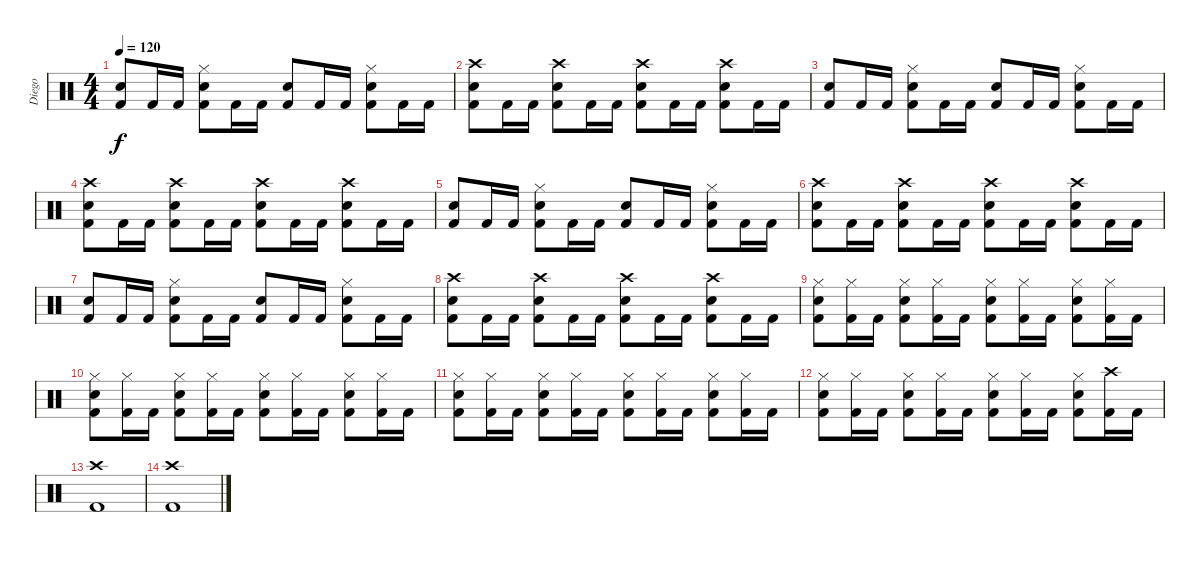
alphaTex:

\track ("Diego" "Diego") {instrument percussion}
\staff {score}
\articulation defaults
\ts (4 4)
\tempo 120
\clef neutral
\ks c
("Snare (hit) 2" "Kick (hit) 2").8{dy f} "Kick (hit) 2".16 "Kick (hit) 2".16 ("Hi-Hat (closed)" "Snare (hit) 2" "Kick (hit) 2").8 "Kick (hit) 2".16 "Kick (hit) 2".16 ("Snare (hit) 2" "Kick (hit) 2").8 "Kick (hit) 2".16 "Kick (hit) 2".16 ("Hi-Hat (closed)" "Snare (hit) 2" "Kick (hit) 2").8 "Kick (hit) 2".16 "Kick (hit) 2".16 |
("Crash high (hit)" "Snare (hit) 2" "Kick (hit) 2").8 "Kick (hit) 2".16 "Kick (hit) 2".16 ("Crash high (hit)" "Snare (hit) 2" "Kick (hit) 2").8 "Kick (hit) 2".16 "Kick (hit) 2".16 ("Crash high (hit)" "Snare (hit) 2" "Kick (hit) 2").8 "Kick (hit) 2".16 "Kick (hit) 2".16 ("Crash high (hit)" "Snare (hit) 2" "Kick (hit) 2").8 "Kick (hit) 2".16 "Kick (hit) 2".16 |
("Snare (hit) 2" "Kick (hit) 2").8 "Kick (hit) 2".16 "Kick (hit) 2".16 ("Hi-Hat (closed)" "Snare (hit) 2" "Kick (hit) 2").8 "Kick (hit) 2".16 "Kick (hit) 2".16 ("Snare (hit) 2" "Kick (hit) 2").8 "Kick (hit) 2".16 "Kick (hit) 2".16 ("Hi-Hat (closed)" "Snare (hit) 2" "Kick (hit) 2").8 "Kick (hit) 2".16 "Kick (hit) 2".16 |
("Crash high (hit)" "Snare (hit) 2" "Kick (hit) 2").8 "Kick (hit) 2".16 "Kick (hit) 2".16 ("Crash high (hit)" "Snare (hit) 2" "Kick (hit) 2").8 "Kick (hit) 2".16 "Kick (hit) 2".16 ("Crash high (hit)" "Snare (hit) 2" "Kick (hit) 2").8 "Kick (hit) 2".16 "Kick (hit) 2".16 ("Crash high (hit)" "Snare (hit) 2" "Kick (hit) 2").8 "Kick (hit) 2".16 "Kick (hit) 2".16 |
("Snare (hit) 2" "Kick (hit) 2").8 "Kick (hit) 2".16 "Kick (hit) 2".16 ("Hi-Hat (closed)" "Snare (hit) 2" "Kick (hit) 2").8 "Kick (hit) 2".16 "Kick (hit) 2".16 ("Snare (hit) 2" "Kick (hit) 2").8 "Kick (hit) 2".16 "Kick (hit) 2".16 ("Hi-Hat (closed)" "Snare (hit) 2" "Kick (hit) 2").8 "Kick (hit) 2".16 "Kick (hit) 2".16 |
("Crash high (hit)" "Snare (hit) 2" "Kick (hit) 2").8 "Kick (hit) 2".16 "Kick (hit) 2".16 ("Crash high (hit)" "Snare (hit) 2" "Kick (hit) 2").8 "Kick (hit) 2".16 "Kick (hit) 2".16 ("Crash high (hit)" "Snare (hit) 2" "Kick (hit) 2").8 "Kick (hit) 2".16 "Kick (hit) 2".16 ("Crash high (hit)" "Snare (hit) 2" "Kick (hit) 2").8 "Kick (hit) 2".16 "Kick (hit) 2".16 |
("Snare (hit) 2" "Kick (hit) 2").8 "Kick (hit) 2".16 "Kick (hit) 2".16 ("Hi-Hat (closed)" "Snare (hit) 2" "Kick (hit) 2").8 "Kick (hit) 2".16 "Kick (hit) 2".16 ("Snare (hit) 2" "Kick (hit) 2").8 "Kick (hit) 2".16 "Kick (hit) 2".16 ("Hi-Hat (closed)" "Snare (hit) 2" "Kick (hit) 2").8 "Kick (hit) 2".16 "Kick (hit) 2".16 |
("Crash high (hit)" "Snare (hit) 2" "Kick (hit) 2").8 "Kick (hit) 2".16 "Kick (hit) 2".16 ("Crash high (hit)" "Snare (hit) 2" "Kick (hit) 2").8 "Kick (hit) 2".16 "Kick (hit) 2".16 ("Crash high (hit)" "Snare (hit) 2" "Kick (hit) 2").8 "Kick (hit) 2".16 "Kick (hit) 2".16 ("Crash high (hit)" "Snare (hit) 2" "Kick (hit) 2").8 "Kick (hit) 2".16 "Kick (hit) 2".16 |
("Hi-Hat (closed)" "Snare (hit) 2" "Kick (hit) 2").8 ("Hi-Hat (closed)" "Kick (hit) 2").16 "Kick (hit) 2".16 ("Hi-Hat (closed)" "Snare (hit) 2" "Kick (hit) 2").8 ("Hi-Hat (closed)" "Kick (hit) 2").16 "Kick (hit) 2".16 ("Hi-Hat (closed)" "Snare (hit) 2" "Kick (hit) 2").8 ("Hi-Hat (closed)" "Kick (hit) 2").16 "Kick (hit) 2".16 ("Hi-Hat (closed)" "Snare (hit) 2" "Kick (hit) 2").8 ("Hi-Hat (closed)" "Kick (hit) 2").16 "Kick (hit) 2".16 |
("Hi-Hat (closed)" "Snare (hit) 2" "Kick (hit) 2").8 ("Hi-Hat (closed)" "Kick (hit) 2").16 "Kick (hit) 2".16 ("Hi-Hat (closed)" "Snare (hit) 2" "Kick (hit) 2").8 ("Hi-Hat (closed)" "Kick (hit) 2").16 "Kick (hit) 2".16 ("Hi-Hat (closed)" "Snare (hit) 2" "Kick (hit) 2").8 ("Hi-Hat (closed)" "Kick (hit) 2").16 "Kick (hit) 2".16 ("Hi-Hat (closed)" "Snare (hit) 2" "Kick (hit) 2").8 ("Hi-Hat (closed)" "Kick (hit) 2").16 "Kick (hit) 2".16 |
("Hi-Hat (closed)" "Snare (hit) 2" "Kick (hit) 2").8 ("Hi-Hat (closed)" "Kick (hit) 2").16 "Kick (hit) 2".16 ("Hi-Hat (closed)" "Snare (hit) 2" "Kick (hit) 2").8 ("Hi-Hat (closed)" "Kick (hit) 2").16 "Kick (hit) 2".16 ("Hi-Hat (closed)" "Snare (hit) 2" "Kick (hit) 2").8 ("Hi-Hat (closed)" "Kick (hit) 2").16 "Kick (hit) 2".16 ("Hi-Hat (closed)" "Snare (hit) 2" "Kick (hit) 2").8 ("Hi-Hat (closed)" "Kick (hit) 2").16 "Kick (hit) 2".16 |
("Hi-Hat (closed)" "Snare (hit) 2" "Kick (hit) 2").8 ("Hi-Hat (closed)" "Kick (hit) 2").16 "Kick (hit) 2".16 ("Hi-Hat (closed)" "Snare (hit) 2" "Kick (hit) 2").8 ("Hi-Hat (closed)" "Kick (hit) 2").16 "Kick (hit) 2".16 ("Hi-Hat (closed)" "Snare (hit) 2" "Kick (hit) 2").8 ("Hi-Hat (closed)" "Kick (hit) 2").16 "Kick (hit) 2".16 ("Hi-Hat (closed)" "Snare (hit) 2" "Kick (hit) 2").8 ("Crash high (hit)" "Kick (hit) 2").16 "Kick (hit) 2".16 |
("Crash high (hit)" "Kick (hit) 2").1 |
("Crash high (hit)" "Kick (hit) 2").1
